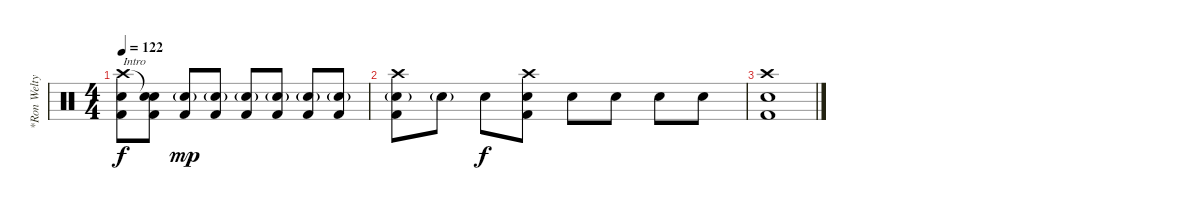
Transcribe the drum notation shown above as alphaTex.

\track ("*Ron Welty (Ex-drummer)" "*Ron Welty") {instrument percussion}
\staff {score}
\articulation defaults
\ts (4 4)
\tempo 122
\clef neutral
\ks c
("Crash high (hit)" "Electric Snare (hit)" "Kick (hit) 2").8{txt "Intro" dy f} ("Snare (hit)"{t} "Electric Snare (hit)" "Kick (hit) 2").8 ("Electric Snare (hit)"{g} "Kick (hit) 2").8{dy mp} ("Electric Snare (hit)"{g} "Kick (hit) 2").8 ("Electric Snare (hit)"{g} "Kick (hit) 2").8 ("Electric Snare (hit)"{g} "Kick (hit) 2").8 ("Electric Snare (hit)"{g} "Kick (hit) 2").8 ("Electric Snare (hit)"{g} "Kick (hit) 2").8 |
("Crash high (hit)" "Electric Snare (hit)"{g} "Kick (hit) 2").8 "Electric Snare (hit)"{g}.8 "Electric Snare (hit)".8{dy f} ("Crash high (hit)" "Electric Snare (hit)" "Kick (hit) 2").8 "Electric Snare (hit)".8 "Electric Snare (hit)".8 "Electric Snare (hit)".8 "Electric Snare (hit)".8 |
("Crash high (hit)" "Electric Snare (hit)" "Kick (hit) 2").1
